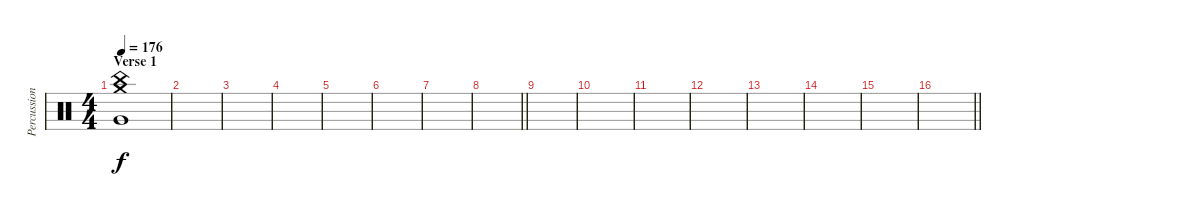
\track ("Percussion" "Percussion") {instrument percussion}
\staff {score}
\articulation defaults
\ts (4 4)
\section ("" "Verse 1")
\tempo 176
\clef neutral
\ks c
("China (hit)" "Crash medium (hit)" "Very Low Tom (hit)").1{dy f} |
|
|
|
|
|
|
\barLineRight lightlight
|
|
|
|
|
|
|
|
\barLineRight lightlight
